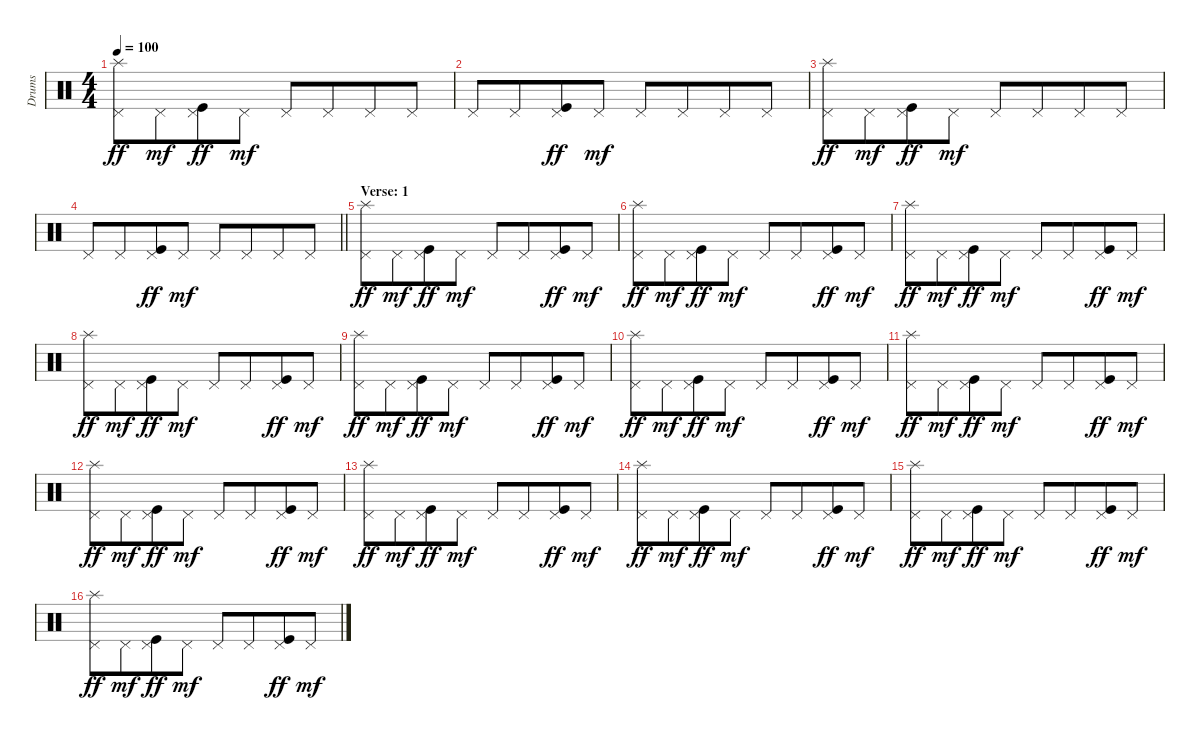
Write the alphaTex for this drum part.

\track ("Drums" "Drums") {instrument percussion}
\staff {score}
\articulation defaults
\ts (4 4)
\tempo 100
\clef neutral
\ks c
("Pedal Hi-Hat (hit)" "Splash (hit)").8{dy ff} "Pedal Hi-Hat (hit)".8{dy mf beam merge} ("Pedal Hi-Hat (hit)" "Kick (hit)").8{dy ff} "Pedal Hi-Hat (hit)".8{dy mf} "Pedal Hi-Hat (hit)".8 "Pedal Hi-Hat (hit)".8{beam merge} "Pedal Hi-Hat (hit)".8 "Pedal Hi-Hat (hit)".8 |
"Pedal Hi-Hat (hit)".8 "Pedal Hi-Hat (hit)".8{beam merge} ("Pedal Hi-Hat (hit)" "Kick (hit)").8{dy ff} "Pedal Hi-Hat (hit)".8{dy mf} "Pedal Hi-Hat (hit)".8 "Pedal Hi-Hat (hit)".8{beam merge} "Pedal Hi-Hat (hit)".8 "Pedal Hi-Hat (hit)".8 |
("Pedal Hi-Hat (hit)" "Splash (hit)").8{dy ff} "Pedal Hi-Hat (hit)".8{dy mf beam merge} ("Pedal Hi-Hat (hit)" "Kick (hit)").8{dy ff} "Pedal Hi-Hat (hit)".8{dy mf} "Pedal Hi-Hat (hit)".8 "Pedal Hi-Hat (hit)".8{beam merge} "Pedal Hi-Hat (hit)".8 "Pedal Hi-Hat (hit)".8 |
\barLineRight lightlight "Pedal Hi-Hat (hit)".8 "Pedal Hi-Hat (hit)".8{beam merge}
("Pedal Hi-Hat (hit)" "Kick (hit)").8{dy ff} "Pedal Hi-Hat (hit)".8{dy mf} "Pedal Hi-Hat (hit)".8 "Pedal Hi-Hat (hit)".8{beam merge} "Pedal Hi-Hat (hit)".8 "Pedal Hi-Hat (hit)".8 |
\section ("" "Verse: 1")
("Pedal Hi-Hat (hit)" "Splash (hit)").8{dy ff} "Pedal Hi-Hat (hit)".8{dy mf beam merge} ("Pedal Hi-Hat (hit)" "Kick (hit)").8{dy ff} "Pedal Hi-Hat (hit)".8{dy mf} "Pedal Hi-Hat (hit)".8 "Pedal Hi-Hat (hit)".8{beam merge} ("Pedal Hi-Hat (hit)" "Kick (hit)").8{dy ff} "Pedal Hi-Hat (hit)".8{dy mf} |
("Pedal Hi-Hat (hit)" "Splash (hit)").8{dy ff} "Pedal Hi-Hat (hit)".8{dy mf beam merge} ("Pedal Hi-Hat (hit)" "Kick (hit)").8{dy ff} "Pedal Hi-Hat (hit)".8{dy mf} "Pedal Hi-Hat (hit)".8 "Pedal Hi-Hat (hit)".8{beam merge} ("Pedal Hi-Hat (hit)" "Kick (hit)").8{dy ff} "Pedal Hi-Hat (hit)".8{dy mf} |
("Pedal Hi-Hat (hit)" "Splash (hit)").8{dy ff} "Pedal Hi-Hat (hit)".8{dy mf beam merge} ("Pedal Hi-Hat (hit)" "Kick (hit)").8{dy ff} "Pedal Hi-Hat (hit)".8{dy mf} "Pedal Hi-Hat (hit)".8 "Pedal Hi-Hat (hit)".8{beam merge} ("Pedal Hi-Hat (hit)" "Kick (hit)").8{dy ff} "Pedal Hi-Hat (hit)".8{dy mf} |
("Pedal Hi-Hat (hit)" "Splash (hit)").8{dy ff} "Pedal Hi-Hat (hit)".8{dy mf beam merge} ("Pedal Hi-Hat (hit)" "Kick (hit)").8{dy ff} "Pedal Hi-Hat (hit)".8{dy mf} "Pedal Hi-Hat (hit)".8 "Pedal Hi-Hat (hit)".8{beam merge} ("Pedal Hi-Hat (hit)" "Kick (hit)").8{dy ff} "Pedal Hi-Hat (hit)".8{dy mf} |
("Pedal Hi-Hat (hit)" "Splash (hit)").8{dy ff} "Pedal Hi-Hat (hit)".8{dy mf beam merge} ("Pedal Hi-Hat (hit)" "Kick (hit)").8{dy ff} "Pedal Hi-Hat (hit)".8{dy mf} "Pedal Hi-Hat (hit)".8 "Pedal Hi-Hat (hit)".8{beam merge} ("Pedal Hi-Hat (hit)" "Kick (hit)").8{dy ff} "Pedal Hi-Hat (hit)".8{dy mf} |
("Pedal Hi-Hat (hit)" "Splash (hit)").8{dy ff} "Pedal Hi-Hat (hit)".8{dy mf beam merge} ("Pedal Hi-Hat (hit)" "Kick (hit)").8{dy ff} "Pedal Hi-Hat (hit)".8{dy mf} "Pedal Hi-Hat (hit)".8 "Pedal Hi-Hat (hit)".8{beam merge} ("Pedal Hi-Hat (hit)" "Kick (hit)").8{dy ff} "Pedal Hi-Hat (hit)".8{dy mf} |
("Pedal Hi-Hat (hit)" "Splash (hit)").8{dy ff} "Pedal Hi-Hat (hit)".8{dy mf beam merge} ("Pedal Hi-Hat (hit)" "Kick (hit)").8{dy ff} "Pedal Hi-Hat (hit)".8{dy mf} "Pedal Hi-Hat (hit)".8 "Pedal Hi-Hat (hit)".8{beam merge} ("Pedal Hi-Hat (hit)" "Kick (hit)").8{dy ff} "Pedal Hi-Hat (hit)".8{dy mf} |
("Pedal Hi-Hat (hit)" "Splash (hit)").8{dy ff} "Pedal Hi-Hat (hit)".8{dy mf beam merge} ("Pedal Hi-Hat (hit)" "Kick (hit)").8{dy ff} "Pedal Hi-Hat (hit)".8{dy mf} "Pedal Hi-Hat (hit)".8 "Pedal Hi-Hat (hit)".8{beam merge} ("Pedal Hi-Hat (hit)" "Kick (hit)").8{dy ff} "Pedal Hi-Hat (hit)".8{dy mf} |
("Pedal Hi-Hat (hit)" "Splash (hit)").8{dy ff} "Pedal Hi-Hat (hit)".8{dy mf beam merge} ("Pedal Hi-Hat (hit)" "Kick (hit)").8{dy ff} "Pedal Hi-Hat (hit)".8{dy mf} "Pedal Hi-Hat (hit)".8 "Pedal Hi-Hat (hit)".8{beam merge} ("Pedal Hi-Hat (hit)" "Kick (hit)").8{dy ff} "Pedal Hi-Hat (hit)".8{dy mf} |
("Pedal Hi-Hat (hit)" "Splash (hit)").8{dy ff} "Pedal Hi-Hat (hit)".8{dy mf beam merge} ("Pedal Hi-Hat (hit)" "Kick (hit)").8{dy ff} "Pedal Hi-Hat (hit)".8{dy mf} "Pedal Hi-Hat (hit)".8 "Pedal Hi-Hat (hit)".8{beam merge} ("Pedal Hi-Hat (hit)" "Kick (hit)").8{dy ff} "Pedal Hi-Hat (hit)".8{dy mf} |
("Pedal Hi-Hat (hit)" "Splash (hit)").8{dy ff} "Pedal Hi-Hat (hit)".8{dy mf beam merge} ("Pedal Hi-Hat (hit)" "Kick (hit)").8{dy ff} "Pedal Hi-Hat (hit)".8{dy mf} "Pedal Hi-Hat (hit)".8 "Pedal Hi-Hat (hit)".8{beam merge} ("Pedal Hi-Hat (hit)" "Kick (hit)").8{dy ff} "Pedal Hi-Hat (hit)".8{dy mf} |
("Pedal Hi-Hat (hit)" "Splash (hit)").8{dy ff} "Pedal Hi-Hat (hit)".8{dy mf beam merge} ("Pedal Hi-Hat (hit)" "Kick (hit)").8{dy ff} "Pedal Hi-Hat (hit)".8{dy mf} "Pedal Hi-Hat (hit)".8 "Pedal Hi-Hat (hit)".8{beam merge} ("Pedal Hi-Hat (hit)" "Kick (hit)").8{dy ff} "Pedal Hi-Hat (hit)".8{dy mf}
